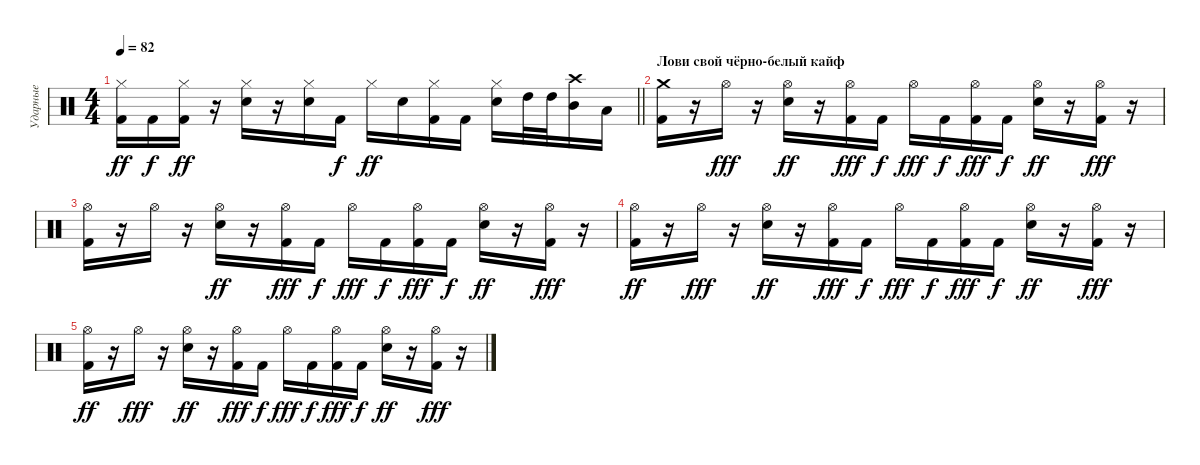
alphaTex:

\track ("Ударные" "Ударные") {instrument percussion}
\staff {score}
\articulation defaults
\ts (4 4)
\tempo 82
\clef neutral
\barLineRight lightlight
\ks c
("Hi-Hat (closed)" "Kick (hit) 2").16{dy ff} "Kick (hit) 2".16{dy f} ("Hi-Hat (closed)" "Kick (hit) 2").16{dy ff} r.16 ("Hi-Hat (closed)" "Electric Snare (hit)").16 r.16 ("Hi-Hat (closed)" "Electric Snare (hit)").16 "Kick (hit) 2".16{dy f} "Hi-Hat (closed)".16{dy ff} "Electric Snare (hit)".16 ("Hi-Hat (closed)" "Kick (hit) 2").16 "Kick (hit) 2".16 ("Hi-Hat (closed)" "Electric Snare (hit)").16 "High Tom (hit)".32 "High Tom (hit)".32 ("Crash high (hit)" "Mid Tom (hit)").16 "Low Tom (hit)".16 |
\section ("" "Лови свой чёрно-белый кайф")
("Crash medium (hit)" "Kick (hit) 2").16 r.16 "Hi-Hat (open)".16{dy fff} r.16 ("Hi-Hat (open)" "Electric Snare (hit)").16{dy ff} r.16 ("Hi-Hat (open)" "Kick (hit) 2").16{dy fff} "Kick (hit) 2".16{dy f} "Hi-Hat (open)".16{dy fff} "Kick (hit) 2".16{dy f} ("Hi-Hat (open)" "Kick (hit) 2").16{dy fff} "Kick (hit) 2".16{dy f} ("Hi-Hat (open)" "Electric Snare (hit)").16{dy ff} r.16 ("Hi-Hat (open)" "Kick (hit) 2").16{dy fff} r.16 |
("Hi-Hat (open)" "Kick (hit) 2").16 r.16 "Hi-Hat (open)".16 r.16 ("Hi-Hat (open)" "Electric Snare (hit)").16{dy ff} r.16 ("Hi-Hat (open)" "Kick (hit) 2").16{dy fff} "Kick (hit) 2".16{dy f} "Hi-Hat (open)".16{dy fff} "Kick (hit) 2".16{dy f} ("Hi-Hat (open)" "Kick (hit) 2").16{dy fff} "Kick (hit) 2".16{dy f} ("Hi-Hat (open)" "Electric Snare (hit)").16{dy ff} r.16 ("Hi-Hat (open)" "Kick (hit) 2").16{dy fff} r.16 |
("Hi-Hat (open)" "Kick (hit) 2").16{dy ff} r.16 "Hi-Hat (open)".16{dy fff} r.16 ("Hi-Hat (open)" "Electric Snare (hit)").16{dy ff} r.16 ("Hi-Hat (open)" "Kick (hit) 2").16{dy fff} "Kick (hit) 2".16{dy f} "Hi-Hat (open)".16{dy fff} "Kick (hit) 2".16{dy f} ("Hi-Hat (open)" "Kick (hit) 2").16{dy fff} "Kick (hit) 2".16{dy f} ("Hi-Hat (open)" "Electric Snare (hit)").16{dy ff} r.16 ("Hi-Hat (open)" "Kick (hit) 2").16{dy fff} r.16 |
("Hi-Hat (open)" "Kick (hit) 2").16{dy ff} r.16 "Hi-Hat (open)".16{dy fff} r.16 ("Hi-Hat (open)" "Electric Snare (hit)").16{dy ff} r.16 ("Hi-Hat (open)" "Kick (hit) 2").16{dy fff} "Kick (hit) 2".16{dy f} "Hi-Hat (open)".16{dy fff} "Kick (hit) 2".16{dy f} ("Hi-Hat (open)" "Kick (hit) 2").16{dy fff} "Kick (hit) 2".16{dy f} ("Hi-Hat (open)" "Electric Snare (hit)").16{dy ff} r.16 ("Hi-Hat (open)" "Kick (hit) 2").16{dy fff} r.16
